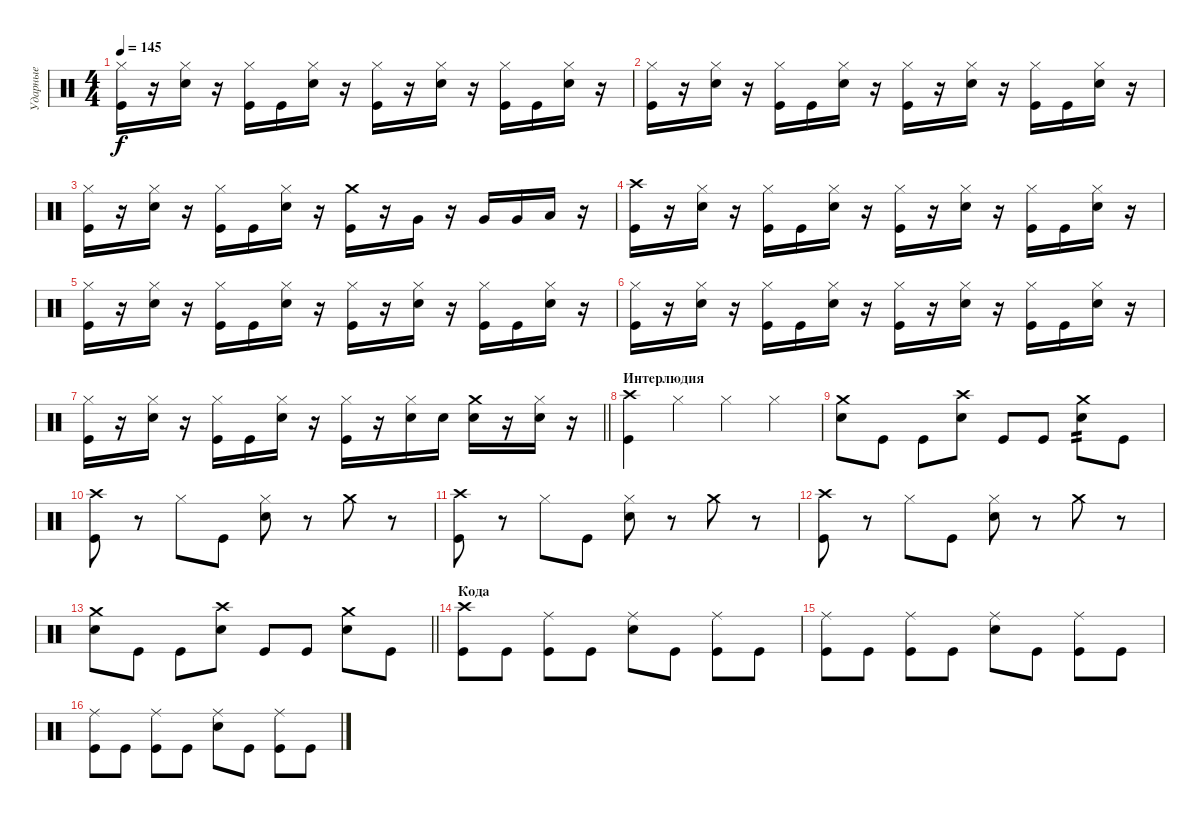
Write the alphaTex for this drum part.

\track ("Ударные" "Ударные") {instrument percussion}
\staff {score}
\articulation defaults
\ts (4 4)
\tempo 145
\clef neutral
\ks c
("Hi-Hat (closed)" "Kick (hit)").16{dy f} r.16 ("Hi-Hat (closed)" "Electric Snare (hit)").16 r.16 ("Hi-Hat (closed)" "Kick (hit)").16 "Kick (hit)".16 ("Hi-Hat (closed)" "Electric Snare (hit)").16 r.16 ("Hi-Hat (closed)" "Kick (hit)").16 r.16 ("Hi-Hat (closed)" "Electric Snare (hit)").16 r.16 ("Hi-Hat (closed)" "Kick (hit)").16 "Kick (hit)".16 ("Hi-Hat (closed)" "Electric Snare (hit)").16 r.16 |
("Hi-Hat (closed)" "Kick (hit)").16 r.16 ("Hi-Hat (closed)" "Electric Snare (hit)").16 r.16 ("Hi-Hat (closed)" "Kick (hit)").16 "Kick (hit)".16 ("Hi-Hat (closed)" "Electric Snare (hit)").16 r.16 ("Hi-Hat (closed)" "Kick (hit)").16 r.16 ("Hi-Hat (closed)" "Electric Snare (hit)").16 r.16 ("Hi-Hat (closed)" "Kick (hit)").16 "Kick (hit)".16 ("Hi-Hat (closed)" "Electric Snare (hit)").16 r.16 |
("Hi-Hat (closed)" "Kick (hit)").16 r.16 ("Hi-Hat (closed)" "Electric Snare (hit)").16 r.16 ("Hi-Hat (closed)" "Kick (hit)").16 "Kick (hit)".16 ("Hi-Hat (closed)" "Electric Snare (hit)").16 r.16 ("Crash medium (hit)" "Kick (hit)").16 r.16 "Very Low Tom (hit)".16 r.16 "Very Low Tom (hit)".16 "Very Low Tom (hit)".16 "Low Floor Tom (hit)".16 r.16 |
("Crash high (hit)" "Kick (hit)").16 r.16 ("Hi-Hat (closed)" "Electric Snare (hit)").16 r.16 ("Hi-Hat (closed)" "Kick (hit)").16 "Kick (hit)".16 ("Hi-Hat (closed)" "Electric Snare (hit)").16 r.16 ("Hi-Hat (closed)" "Kick (hit)").16 r.16 ("Hi-Hat (closed)" "Electric Snare (hit)").16 r.16 ("Hi-Hat (closed)" "Kick (hit)").16 "Kick (hit)".16 ("Hi-Hat (closed)" "Electric Snare (hit)").16 r.16 |
("Hi-Hat (closed)" "Kick (hit)").16 r.16 ("Hi-Hat (closed)" "Electric Snare (hit)").16 r.16 ("Hi-Hat (closed)" "Kick (hit)").16 "Kick (hit)".16 ("Hi-Hat (closed)" "Electric Snare (hit)").16 r.16 ("Hi-Hat (closed)" "Kick (hit)").16 r.16 ("Hi-Hat (closed)" "Electric Snare (hit)").16 r.16 ("Hi-Hat (closed)" "Kick (hit)").16 "Kick (hit)".16 ("Hi-Hat (closed)" "Electric Snare (hit)").16 r.16 |
("Hi-Hat (closed)" "Kick (hit)").16 r.16 ("Hi-Hat (closed)" "Electric Snare (hit)").16 r.16 ("Hi-Hat (closed)" "Kick (hit)").16 "Kick (hit)".16 ("Hi-Hat (closed)" "Electric Snare (hit)").16 r.16 ("Hi-Hat (closed)" "Kick (hit)").16 r.16 ("Hi-Hat (closed)" "Electric Snare (hit)").16 r.16 ("Hi-Hat (closed)" "Kick (hit)").16 "Kick (hit)".16 ("Hi-Hat (closed)" "Electric Snare (hit)").16 r.16 |
\barLineRight lightlight
("Hi-Hat (closed)" "Kick (hit)").16 r.16 ("Hi-Hat (closed)" "Electric Snare (hit)").16 r.16 ("Hi-Hat (closed)" "Kick (hit)").16 "Kick (hit)".16 ("Hi-Hat (closed)" "Electric Snare (hit)").16 r.16 ("Hi-Hat (closed)" "Kick (hit)").16 r.16 ("Hi-Hat (closed)" "Electric Snare (hit)").16 "Electric Snare (hit)".16 ("Crash medium (hit)" "Electric Snare (hit)").16 r.16 ("Hi-Hat (closed)" "Electric Snare (hit)").16 r.16 |
\section ("" "Интерлюдия")
("Crash high (hit)" "Kick (hit)").4 "Hi-Hat (closed)".4 "Hi-Hat (closed)".4 "Hi-Hat (closed)".4 |
("Crash medium (hit)" "Electric Snare (hit)").8 "Kick (hit)".8 "Kick (hit)".8 ("Crash high (hit)" "Electric Snare (hit)").8 "Kick (hit)".8 "Kick (hit)".8 ("Crash medium (hit)" "Electric Snare (hit)").8{tp 2} "Kick (hit)".8 |
("Crash high (hit)" "Kick (hit)").8 r.8 "Hi-Hat (closed)".8 "Kick (hit)".8 ("Hi-Hat (closed)" "Electric Snare (hit)").8 r.8 "Crash medium (hit)".8 r.8 |
("Crash high (hit)" "Kick (hit)").8 r.8 "Hi-Hat (closed)".8 "Kick (hit)".8 ("Hi-Hat (closed)" "Electric Snare (hit)").8 r.8 "Crash medium (hit)".8 r.8 |
("Crash high (hit)" "Kick (hit)").8 r.8 "Hi-Hat (closed)".8 "Kick (hit)".8 ("Hi-Hat (closed)" "Electric Snare (hit)").8 r.8 "Crash medium (hit)".8 r.8 |
\barLineRight lightlight
("Crash medium (hit)" "Electric Snare (hit)").8 "Kick (hit)".8 "Kick (hit)".8 ("Crash high (hit)" "Electric Snare (hit)").8 "Kick (hit)".8 "Kick (hit)".8 ("Crash medium (hit)" "Electric Snare (hit)").8 "Kick (hit)".8 |
\section ("" "Кода")
("Crash high (hit)" "Kick (hit)").8 "Kick (hit)".8 ("Ride (middle)" "Kick (hit)").8 "Kick (hit)".8 ("Ride (middle)" "Electric Snare (hit)").8 "Kick (hit)".8 ("Ride (middle)" "Kick (hit)").8 "Kick (hit)".8 |
("Ride (middle)" "Kick (hit)").8 "Kick (hit)".8 ("Ride (middle)" "Kick (hit)").8 "Kick (hit)".8 ("Ride (middle)" "Electric Snare (hit)").8 "Kick (hit)".8 ("Ride (middle)" "Kick (hit)").8 "Kick (hit)".8 |
("Ride (middle)" "Kick (hit)").8 "Kick (hit)".8 ("Ride (middle)" "Kick (hit)").8 "Kick (hit)".8 ("Ride (middle)" "Electric Snare (hit)").8 "Kick (hit)".8 ("Ride (middle)" "Kick (hit)").8 "Kick (hit)".8
